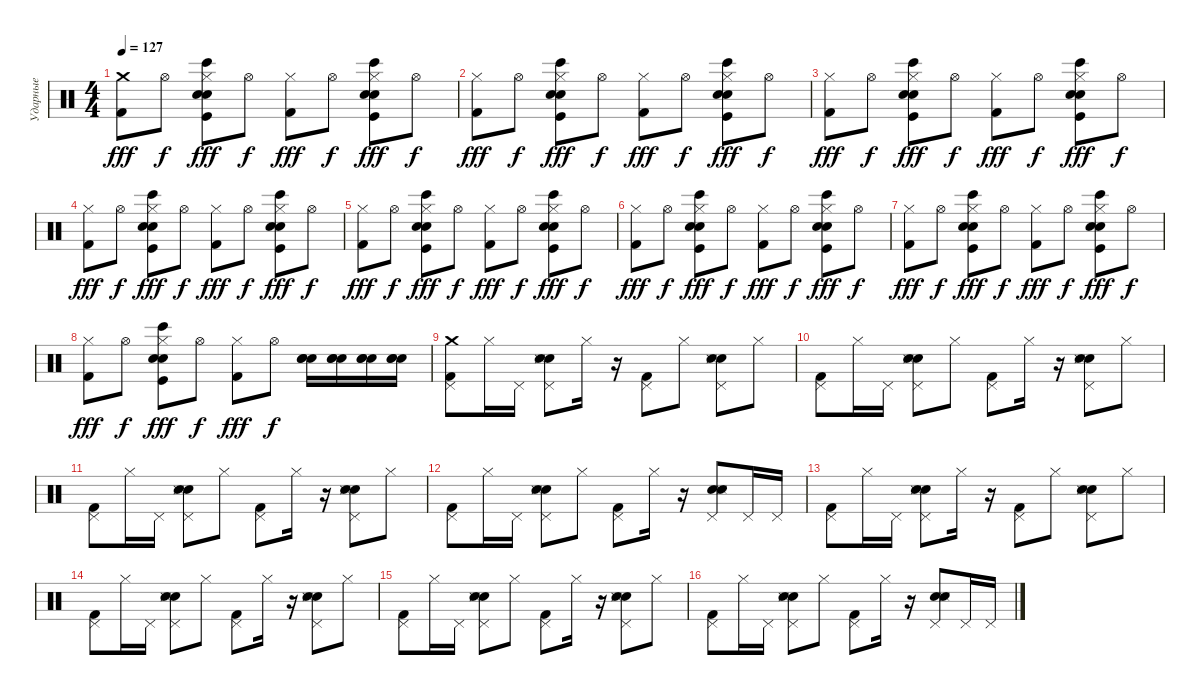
\track ("Ударные" "Ударные") {instrument percussion}
\staff {score}
\articulation defaults
\ts (4 4)
\tempo 127
\clef neutral
\ks c
("Kick (hit) 2" "Crash medium (hit)").8{dy fff} "Hi-Hat (open)".8{dy f} ("Hi-Hat (closed)" "Hand Clap (hit)" "Kick (hit)" "Snare (hit) 2" "Bongo High (hit)").8{dy fff} "Hi-Hat (open)".8{dy f} ("Kick (hit) 2" "Hi-Hat (closed)").8{dy fff} "Hi-Hat (open)".8{dy f} ("Hi-Hat (closed)" "Hand Clap (hit)" "Kick (hit)" "Snare (hit) 2" "Bongo High (hit)").8{dy fff} "Hi-Hat (open)".8{dy f} |
("Kick (hit) 2" "Hi-Hat (closed)").8{dy fff} "Hi-Hat (open)".8{dy f} ("Hi-Hat (closed)" "Hand Clap (hit)" "Kick (hit)" "Snare (hit) 2" "Bongo High (hit)").8{dy fff} "Hi-Hat (open)".8{dy f} ("Kick (hit) 2" "Hi-Hat (closed)").8{dy fff} "Hi-Hat (open)".8{dy f} ("Hi-Hat (closed)" "Hand Clap (hit)" "Kick (hit)" "Snare (hit) 2" "Bongo High (hit)").8{dy fff} "Hi-Hat (open)".8{dy f} |
("Kick (hit) 2" "Hi-Hat (closed)").8{dy fff} "Hi-Hat (open)".8{dy f} ("Hi-Hat (closed)" "Hand Clap (hit)" "Kick (hit)" "Snare (hit) 2" "Bongo High (hit)").8{dy fff} "Hi-Hat (open)".8{dy f} ("Kick (hit) 2" "Hi-Hat (closed)").8{dy fff} "Hi-Hat (open)".8{dy f} ("Hi-Hat (closed)" "Hand Clap (hit)" "Kick (hit)" "Snare (hit) 2" "Bongo High (hit)").8{dy fff} "Hi-Hat (open)".8{dy f} |
("Kick (hit) 2" "Hi-Hat (closed)").8{dy fff} "Hi-Hat (open)".8{dy f} ("Hi-Hat (closed)" "Hand Clap (hit)" "Kick (hit)" "Snare (hit) 2" "Bongo High (hit)").8{dy fff} "Hi-Hat (open)".8{dy f} ("Kick (hit) 2" "Hi-Hat (closed)").8{dy fff} "Hi-Hat (open)".8{dy f} ("Hi-Hat (closed)" "Hand Clap (hit)" "Kick (hit)" "Snare (hit) 2" "Bongo High (hit)").8{dy fff} "Hi-Hat (open)".8{dy f} |
("Kick (hit) 2" "Hi-Hat (closed)").8{dy fff} "Hi-Hat (open)".8{dy f} ("Hi-Hat (closed)" "Hand Clap (hit)" "Kick (hit)" "Snare (hit) 2" "Bongo High (hit)").8{dy fff} "Hi-Hat (open)".8{dy f} ("Kick (hit) 2" "Hi-Hat (closed)").8{dy fff} "Hi-Hat (open)".8{dy f} ("Hi-Hat (closed)" "Hand Clap (hit)" "Kick (hit)" "Snare (hit) 2" "Bongo High (hit)").8{dy fff} "Hi-Hat (open)".8{dy f} |
("Kick (hit) 2" "Hi-Hat (closed)").8{dy fff} "Hi-Hat (open)".8{dy f} ("Hi-Hat (closed)" "Hand Clap (hit)" "Kick (hit)" "Snare (hit) 2" "Bongo High (hit)").8{dy fff} "Hi-Hat (open)".8{dy f} ("Kick (hit) 2" "Hi-Hat (closed)").8{dy fff} "Hi-Hat (open)".8{dy f} ("Hi-Hat (closed)" "Hand Clap (hit)" "Kick (hit)" "Snare (hit) 2" "Bongo High (hit)").8{dy fff} "Hi-Hat (open)".8{dy f} |
("Kick (hit) 2" "Hi-Hat (closed)").8{dy fff} "Hi-Hat (open)".8{dy f} ("Hi-Hat (closed)" "Hand Clap (hit)" "Kick (hit)" "Snare (hit) 2" "Bongo High (hit)").8{dy fff} "Hi-Hat (open)".8{dy f} ("Kick (hit) 2" "Hi-Hat (closed)").8{dy fff} "Hi-Hat (open)".8{dy f} ("Hi-Hat (closed)" "Hand Clap (hit)" "Kick (hit)" "Snare (hit) 2" "Bongo High (hit)").8{dy fff} "Hi-Hat (open)".8{dy f} |
("Kick (hit) 2" "Hi-Hat (closed)").8{dy fff} "Hi-Hat (open)".8{dy f} ("Hi-Hat (closed)" "Hand Clap (hit)" "Kick (hit)" "Snare (hit) 2" "Bongo High (hit)").8{dy fff} "Hi-Hat (open)".8{dy f} ("Kick (hit) 2" "Hi-Hat (closed)").8{dy fff} "Hi-Hat (open)".8{dy f} ("Hand Clap (hit)" "Hand Clap (hit)" "Snare (hit) 2").16 ("Hand Clap (hit)" "Hand Clap (hit)" "Snare (hit) 2").16 ("Hand Clap (hit)" "Hand Clap (hit)" "Snare (hit) 2").16 ("Hand Clap (hit)" "Hand Clap (hit)" "Snare (hit) 2").16 |
("Kick (hit) 2" "Pedal Hi-Hat (hit)" "Crash medium (hit)").8 "Hi-Hat (closed)".16 "Pedal Hi-Hat (hit)".16 ("Pedal Hi-Hat (hit)" "Electric Snare (hit)" "Hand Clap (hit)" "Snare (side stick) 3").8 "Hi-Hat (closed)".16 r.16 ("Kick (hit) 2" "Pedal Hi-Hat (hit)").8 "Hi-Hat (closed)".8 ("Pedal Hi-Hat (hit)" "Electric Snare (hit)" "Hand Clap (hit)" "Snare (side stick) 3").8 "Hi-Hat (closed)".8 |
("Kick (hit) 2" "Pedal Hi-Hat (hit)").8 "Hi-Hat (closed)".16 "Pedal Hi-Hat (hit)".16 ("Pedal Hi-Hat (hit)" "Electric Snare (hit)" "Hand Clap (hit)" "Snare (side stick) 3").8 "Hi-Hat (closed)".8 ("Kick (hit) 2" "Pedal Hi-Hat (hit)").8 "Hi-Hat (closed)".16 r.16 ("Pedal Hi-Hat (hit)" "Electric Snare (hit)" "Hand Clap (hit)" "Snare (side stick) 3").8 "Hi-Hat (closed)".8 |
("Kick (hit) 2" "Pedal Hi-Hat (hit)").8 "Hi-Hat (closed)".16 "Pedal Hi-Hat (hit)".16 ("Pedal Hi-Hat (hit)" "Electric Snare (hit)" "Hand Clap (hit)" "Snare (side stick) 3").8 "Hi-Hat (closed)".8 ("Kick (hit) 2" "Pedal Hi-Hat (hit)").8 "Hi-Hat (closed)".16 r.16 ("Pedal Hi-Hat (hit)" "Electric Snare (hit)" "Hand Clap (hit)" "Snare (side stick) 3").8 "Hi-Hat (closed)".8 |
("Kick (hit) 2" "Pedal Hi-Hat (hit)").8 "Hi-Hat (closed)".16 "Pedal Hi-Hat (hit)".16 ("Pedal Hi-Hat (hit)" "Electric Snare (hit)" "Hand Clap (hit)" "Snare (side stick) 3").8 "Hi-Hat (closed)".8 ("Kick (hit) 2" "Pedal Hi-Hat (hit)").8 "Hi-Hat (closed)".16 r.16 ("Pedal Hi-Hat (hit)" "Electric Snare (hit)" "Hand Clap (hit)" "Snare (side stick) 3").8 "Pedal Hi-Hat (hit)".16 "Pedal Hi-Hat (hit)".16 |
("Kick (hit) 2" "Pedal Hi-Hat (hit)").8 "Hi-Hat (closed)".16 "Pedal Hi-Hat (hit)".16 ("Pedal Hi-Hat (hit)" "Electric Snare (hit)" "Hand Clap (hit)" "Snare (side stick) 3").8 "Hi-Hat (closed)".16 r.16 ("Kick (hit) 2" "Pedal Hi-Hat (hit)").8 "Hi-Hat (closed)".8 ("Pedal Hi-Hat (hit)" "Electric Snare (hit)" "Hand Clap (hit)" "Snare (side stick) 3").8 "Hi-Hat (closed)".8 |
("Kick (hit) 2" "Pedal Hi-Hat (hit)").8 "Hi-Hat (closed)".16 "Pedal Hi-Hat (hit)".16 ("Pedal Hi-Hat (hit)" "Electric Snare (hit)" "Hand Clap (hit)" "Snare (side stick) 3").8 "Hi-Hat (closed)".8 ("Kick (hit) 2" "Pedal Hi-Hat (hit)").8 "Hi-Hat (closed)".16 r.16 ("Pedal Hi-Hat (hit)" "Electric Snare (hit)" "Hand Clap (hit)" "Snare (side stick) 3").8 "Hi-Hat (closed)".8 |
("Kick (hit) 2" "Pedal Hi-Hat (hit)").8 "Hi-Hat (closed)".16 "Pedal Hi-Hat (hit)".16 ("Pedal Hi-Hat (hit)" "Electric Snare (hit)" "Hand Clap (hit)" "Snare (side stick) 3").8 "Hi-Hat (closed)".8 ("Kick (hit) 2" "Pedal Hi-Hat (hit)").8 "Hi-Hat (closed)".16 r.16 ("Pedal Hi-Hat (hit)" "Electric Snare (hit)" "Hand Clap (hit)" "Snare (side stick) 3").8 "Hi-Hat (closed)".8 |
("Kick (hit) 2" "Pedal Hi-Hat (hit)").8 "Hi-Hat (closed)".16 "Pedal Hi-Hat (hit)".16 ("Pedal Hi-Hat (hit)" "Electric Snare (hit)" "Hand Clap (hit)" "Snare (side stick) 3").8 "Hi-Hat (closed)".8 ("Kick (hit) 2" "Pedal Hi-Hat (hit)").8 "Hi-Hat (closed)".16 r.16 ("Pedal Hi-Hat (hit)" "Electric Snare (hit)" "Hand Clap (hit)" "Snare (side stick) 3").8 "Pedal Hi-Hat (hit)".16 "Pedal Hi-Hat (hit)".16
